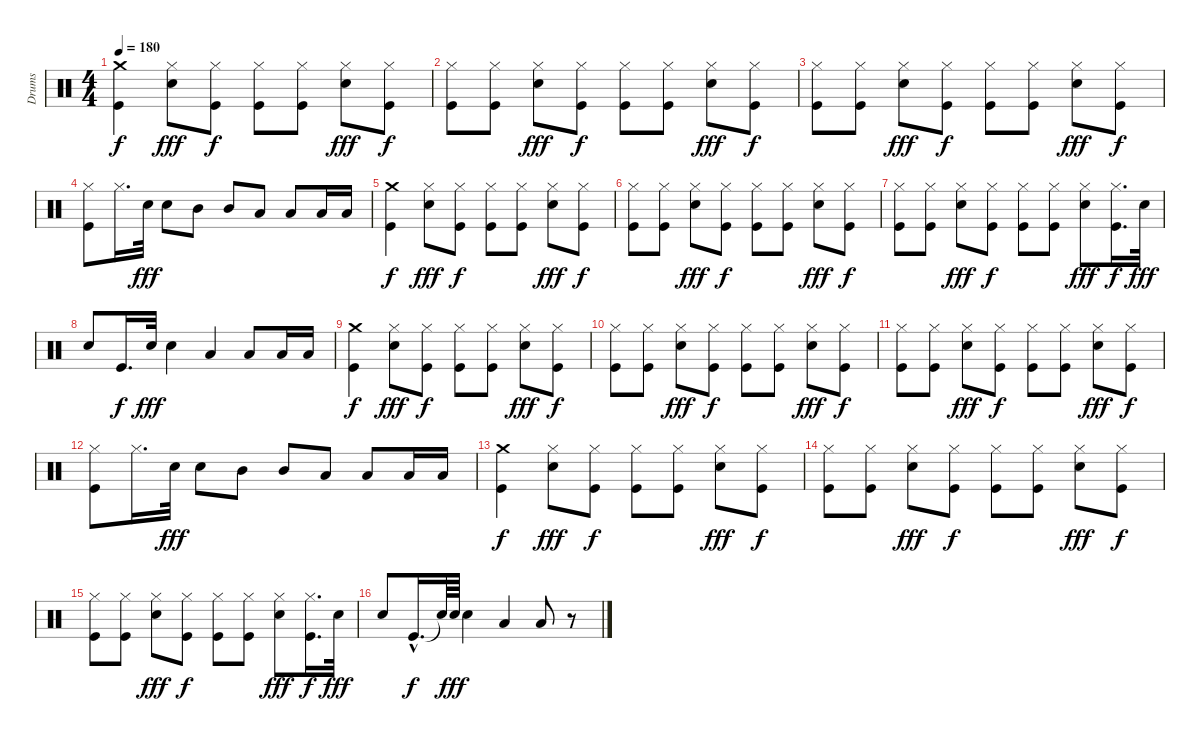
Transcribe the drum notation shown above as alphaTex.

\track ("Drums" "Drums") {instrument percussion}
\staff {score}
\articulation defaults
\ts (4 4)
\tempo 180
\clef neutral
\ks c
("Crash medium (hit)" "Kick (hit)").4{dy f} ("Hi-Hat (closed)" "Snare (hit) 2").8{dy fff} ("Hi-Hat (closed)" "Kick (hit)").8{dy f} ("Hi-Hat (closed)" "Kick (hit)").8 ("Hi-Hat (closed)" "Kick (hit)").8 ("Snare (hit) 2" "Hi-Hat (closed)").8{dy fff} ("Kick (hit)" "Hi-Hat (closed)").8{dy f} |
("Hi-Hat (closed)" "Kick (hit)").8 ("Hi-Hat (closed)" "Kick (hit)").8 ("Hi-Hat (closed)" "Snare (hit) 2").8{dy fff} ("Hi-Hat (closed)" "Kick (hit)").8{dy f} ("Hi-Hat (closed)" "Kick (hit)").8 ("Hi-Hat (closed)" "Kick (hit)").8 ("Snare (hit) 2" "Hi-Hat (closed)").8{dy fff} ("Kick (hit)" "Hi-Hat (closed)").8{dy f} |
("Hi-Hat (closed)" "Kick (hit)").8 ("Hi-Hat (closed)" "Kick (hit)").8 ("Hi-Hat (closed)" "Snare (hit) 2").8{dy fff} ("Hi-Hat (closed)" "Kick (hit)").8{dy f} ("Hi-Hat (closed)" "Kick (hit)").8 ("Hi-Hat (closed)" "Kick (hit)").8 ("Snare (hit) 2" "Hi-Hat (closed)").8{dy fff} ("Kick (hit)" "Hi-Hat (closed)").8{dy f} |
("Hi-Hat (closed)" "Kick (hit)").8 "Hi-Hat (closed)".16{d} "Snare (hit) 2".32{dy fff} "Snare (hit) 2".8 "Mid Tom (hit)".8 "Mid Tom (hit)".8 "Low Tom (hit)".8 "Low Tom (hit)".8 "Low Tom (hit)".16 "Low Tom (hit)".16 |
("Crash medium (hit)" "Kick (hit)").4{dy f} ("Hi-Hat (closed)" "Snare (hit) 2").8{dy fff} ("Hi-Hat (closed)" "Kick (hit)").8{dy f} ("Hi-Hat (closed)" "Kick (hit)").8 ("Hi-Hat (closed)" "Kick (hit)").8 ("Snare (hit) 2" "Hi-Hat (closed)").8{dy fff} ("Kick (hit)" "Hi-Hat (closed)").8{dy f} |
("Hi-Hat (closed)" "Kick (hit)").8 ("Hi-Hat (closed)" "Kick (hit)").8 ("Hi-Hat (closed)" "Snare (hit) 2").8{dy fff} ("Hi-Hat (closed)" "Kick (hit)").8{dy f} ("Hi-Hat (closed)" "Kick (hit)").8 ("Hi-Hat (closed)" "Kick (hit)").8 ("Snare (hit) 2" "Hi-Hat (closed)").8{dy fff} ("Kick (hit)" "Hi-Hat (closed)").8{dy f} |
("Hi-Hat (closed)" "Kick (hit)").8 ("Hi-Hat (closed)" "Kick (hit)").8 ("Hi-Hat (closed)" "Snare (hit) 2").8{dy fff} ("Hi-Hat (closed)" "Kick (hit)").8{dy f} ("Hi-Hat (closed)" "Kick (hit)").8 ("Hi-Hat (closed)" "Kick (hit)").8 ("Snare (hit) 2" "Hi-Hat (closed)").8{dy fff} ("Kick (hit)" "Hi-Hat (closed)").16{d dy f} "Snare (hit) 2".32{dy fff} |
"Snare (hit) 2".8 "Kick (hit)".16{d dy f} "Snare (hit) 2".32{dy fff} "Snare (hit) 2".4 "Low Tom (hit)".4 "Low Tom (hit)".8 "Low Tom (hit)".16 "Low Tom (hit)".16 |
("Crash medium (hit)" "Kick (hit)").4{dy f} ("Hi-Hat (closed)" "Snare (hit) 2").8{dy fff} ("Hi-Hat (closed)" "Kick (hit)").8{dy f} ("Hi-Hat (closed)" "Kick (hit)").8 ("Hi-Hat (closed)" "Kick (hit)").8 ("Snare (hit) 2" "Hi-Hat (closed)").8{dy fff} ("Kick (hit)" "Hi-Hat (closed)").8{dy f} |
("Hi-Hat (closed)" "Kick (hit)").8 ("Hi-Hat (closed)" "Kick (hit)").8 ("Hi-Hat (closed)" "Snare (hit) 2").8{dy fff} ("Hi-Hat (closed)" "Kick (hit)").8{dy f} ("Hi-Hat (closed)" "Kick (hit)").8 ("Hi-Hat (closed)" "Kick (hit)").8 ("Snare (hit) 2" "Hi-Hat (closed)").8{dy fff} ("Kick (hit)" "Hi-Hat (closed)").8{dy f} |
("Hi-Hat (closed)" "Kick (hit)").8 ("Hi-Hat (closed)" "Kick (hit)").8 ("Hi-Hat (closed)" "Snare (hit) 2").8{dy fff} ("Hi-Hat (closed)" "Kick (hit)").8{dy f} ("Hi-Hat (closed)" "Kick (hit)").8 ("Hi-Hat (closed)" "Kick (hit)").8 ("Snare (hit) 2" "Hi-Hat (closed)").8{dy fff} ("Kick (hit)" "Hi-Hat (closed)").8{dy f} |
("Hi-Hat (closed)" "Kick (hit)").8 "Hi-Hat (closed)".16{d} "Snare (hit) 2".32{dy fff} "Snare (hit) 2".8 "Mid Tom (hit)".8 "Mid Tom (hit)".8 "Low Tom (hit)".8 "Low Tom (hit)".8 "Low Tom (hit)".16 "Low Tom (hit)".16 |
("Crash medium (hit)" "Kick (hit)").4{dy f} ("Hi-Hat (closed)" "Snare (hit) 2").8{dy fff} ("Hi-Hat (closed)" "Kick (hit)").8{dy f} ("Hi-Hat (closed)" "Kick (hit)").8 ("Hi-Hat (closed)" "Kick (hit)").8 ("Snare (hit) 2" "Hi-Hat (closed)").8{dy fff} ("Kick (hit)" "Hi-Hat (closed)").8{dy f} |
("Hi-Hat (closed)" "Kick (hit)").8 ("Hi-Hat (closed)" "Kick (hit)").8 ("Hi-Hat (closed)" "Snare (hit) 2").8{dy fff} ("Hi-Hat (closed)" "Kick (hit)").8{dy f} ("Hi-Hat (closed)" "Kick (hit)").8 ("Hi-Hat (closed)" "Kick (hit)").8 ("Snare (hit) 2" "Hi-Hat (closed)").8{dy fff} ("Kick (hit)" "Hi-Hat (closed)").8{dy f} |
("Hi-Hat (closed)" "Kick (hit)").8 ("Hi-Hat (closed)" "Kick (hit)").8 ("Hi-Hat (closed)" "Snare (hit) 2").8{dy fff} ("Hi-Hat (closed)" "Kick (hit)").8{dy f} ("Hi-Hat (closed)" "Kick (hit)").8 ("Hi-Hat (closed)" "Kick (hit)").8 ("Snare (hit) 2" "Hi-Hat (closed)").8{dy fff} ("Kick (hit)" "Hi-Hat (closed)").16{d dy f} "Snare (hit) 2".32{dy fff} |
"Snare (hit) 2".8 "Kick (hit)"{hac}.16{d dy f} "Snare (hit)"{t}.64 "Snare (hit) 2".64{dy fff} "Snare (hit) 2".4 "Low Tom (hit)".4 "Low Tom (hit)".8 r.8
